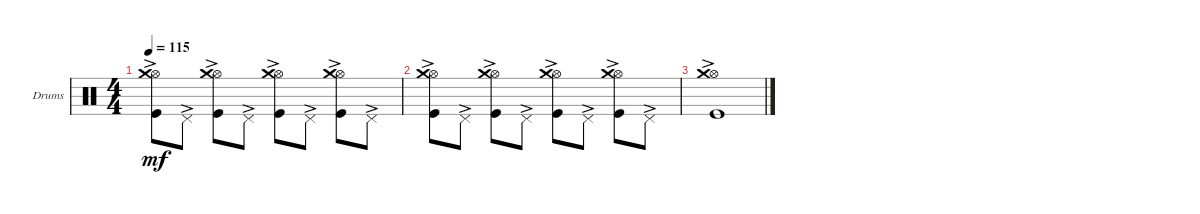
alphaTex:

\defaultSystemsLayout 4
\bracketExtendMode groupsimilarinstruments
\firstSystemTrackNameOrientation horizontal
\otherSystemsTrackNameOrientation horizontal
\track ("Е.Кулаков Ударные" "Drums") {instrument percussion}
\staff {score}
\articulation defaults
\ts (4 4)
\tempo 115
\clef neutral
\scale
0.333333
\ks c
("Kick (hit)"{ac} "Hi-Hat (open)"{ac} "Crash medium (hit)"{ac}).8{dy mf} "Pedal Hi-Hat (hit)"{ac}.8 ("Kick (hit)"{ac} "Hi-Hat (open)"{ac} "Crash medium (hit)"{ac}).8 "Pedal Hi-Hat (hit)"{ac}.8 ("Kick (hit)"{ac} "Hi-Hat (open)"{ac} "Crash medium (hit)"{ac}).8 "Pedal Hi-Hat (hit)"{ac}.8 ("Kick (hit)"{ac} "Hi-Hat (open)"{ac} "Crash medium (hit)"{ac}).8 "Pedal Hi-Hat (hit)"{ac}.8 |
\scale
0.333333 ("Kick (hit)"{ac} "Hi-Hat (open)"{ac} "Crash medium (hit)"{ac}).8 "Pedal Hi-Hat (hit)"{ac}.8 ("Kick (hit)"{ac} "Hi-Hat (open)"{ac} "Crash medium (hit)"{ac}).8 "Pedal Hi-Hat (hit)"{ac}.8 ("Kick (hit)"{ac} "Hi-Hat (open)"{ac} "Crash medium (hit)"{ac}).8 "Pedal Hi-Hat (hit)"{ac}.8 ("Kick (hit)"{ac} "Hi-Hat (open)"{ac} "Crash medium (hit)"{ac}).8 "Pedal Hi-Hat (hit)"{ac}.8 |
("Kick (hit)"{ac} "Hi-Hat (open)"{ac} "Crash medium (hit)"{ac}).1
